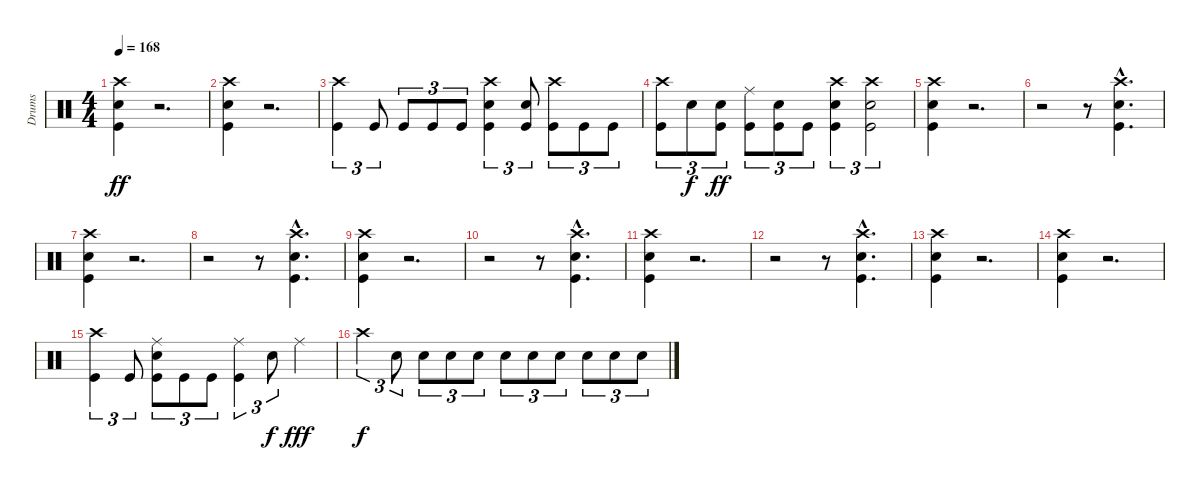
\track ("Drums" "Drums") {instrument percussion}
\staff {score}
\articulation defaults
\ts (4 4)
\tempo 168
\clef neutral
\ks c
("Crash high (hit)" "Electric Snare (hit)" "Kick (hit)").4{dy ff} r.2{d} |
("Crash high (hit)" "Electric Snare (hit)" "Kick (hit)").4 r.2{d} |
("Crash high (hit)" "Kick (hit)").4{tu (3 2)} "Kick (hit)".8{tu (3 2)} "Kick (hit)".8{tu (3 2)} "Kick (hit)".8{tu (3 2)} "Kick (hit)".8{tu (3 2)} ("Crash high (hit)" "Electric Snare (hit)" "Kick (hit)").4{tu (3 2)} ("Electric Snare (hit)" "Kick (hit)").8{tu (3 2)} ("Crash high (hit)" "Kick (hit)").8{tu (3 2)} "Kick (hit)".8{tu (3 2)} "Kick (hit)".8{tu (3 2)} |
("Crash high (hit)" "Kick (hit)").8{tu (3 2)} "Electric Snare (hit)".8{tu (3 2) dy f} ("Electric Snare (hit)" "Kick (hit)").8{tu (3 2) dy ff} ("Ride (middle)" "Kick (hit)").8{tu (3 2)} ("Electric Snare (hit)" "Kick (hit)").8{tu (3 2)} "Kick (hit)".8{tu (3 2)} ("Crash high (hit)" "Electric Snare (hit)" "Kick (hit)").4{tu (3 2)} ("Crash high (hit)" "Electric Snare (hit)" "Kick (hit)").2{tu (3 2)} |
("Crash high (hit)" "Electric Snare (hit)" "Kick (hit)").4 r.2{d} |
r.2 r.8 ("Crash high (hit)"{hac} "Electric Snare (hit)"{hac} "Kick (hit)"{hac}).4{d} |
("Crash high (hit)" "Electric Snare (hit)" "Kick (hit)").4 r.2{d} |
r.2 r.8 ("Crash high (hit)"{hac} "Electric Snare (hit)"{hac} "Kick (hit)"{hac}).4{d} |
("Crash high (hit)" "Electric Snare (hit)" "Kick (hit)").4 r.2{d} |
r.2 r.8 ("Crash high (hit)"{hac} "Electric Snare (hit)"{hac} "Kick (hit)"{hac}).4{d} |
("Crash high (hit)" "Electric Snare (hit)" "Kick (hit)").4 r.2{d} |
r.2 r.8 ("Crash high (hit)"{hac} "Electric Snare (hit)"{hac} "Kick (hit)"{hac}).4{d} |
("Crash high (hit)" "Electric Snare (hit)" "Kick (hit)").4 r.2{d} |
("Crash high (hit)" "Electric Snare (hit)" "Kick (hit)").4 r.2{d} |
("Crash high (hit)" "Kick (hit)").4{tu (3 2)} "Kick (hit)".8{tu (3 2)} ("Ride (middle)" "Electric Snare (hit)" "Kick (hit)").8{tu (3 2)} "Kick (hit)".8{tu (3 2)} "Kick (hit)".8{tu (3 2)} ("Ride (middle)" "Kick (hit)").4{tu (3 2)} "Electric Snare (hit)".8{tu (3 2) dy f} "Ride (middle)".4{dy fff} |
"Crash high (hit)".4{tu (3 2) dy f} "Electric Snare (hit)".8{tu (3 2)} "Electric Snare (hit)".8{tu (3 2)} "Electric Snare (hit)".8{tu (3 2)} "Electric Snare (hit)".8{tu (3 2)} "Electric Snare (hit)".8{tu (3 2)} "Electric Snare (hit)".8{tu (3 2)} "Electric Snare (hit)".8{tu (3 2)} "Electric Snare (hit)".8{tu (3 2)} "Electric Snare (hit)".8{tu (3 2)} "Electric Snare (hit)".8{tu (3 2)}
